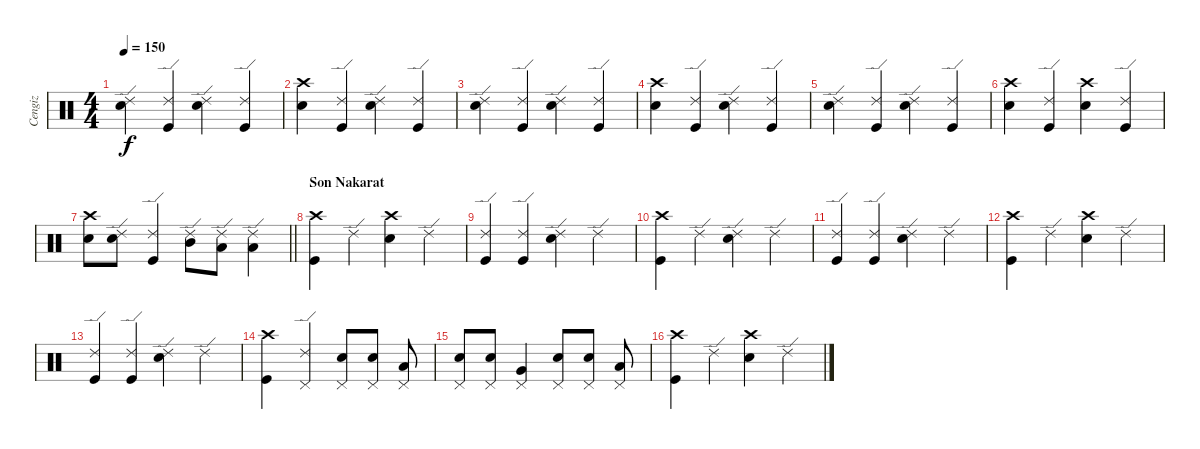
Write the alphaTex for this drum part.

\track ("Cengiz" "Cengiz") {instrument percussion}
\staff {score}
\articulation defaults
\ts (4 4)
\tempo 150
\clef neutral
\ks c
("Ride (edge) 2" "Snare (hit) 2").4{dy f} ("Ride (edge) 2" "Kick (hit)").4 ("Ride (edge) 2" "Snare (hit) 2").4 ("Ride (edge) 2" "Kick (hit)").4 |
("Crash high (hit)" "Snare (hit) 2").4 ("Ride (edge) 2" "Kick (hit)").4 ("Ride (edge) 2" "Snare (hit) 2").4 ("Ride (edge) 2" "Kick (hit)").4 |
("Ride (edge) 2" "Snare (hit) 2").4 ("Ride (edge) 2" "Kick (hit)").4 ("Ride (edge) 2" "Snare (hit) 2").4 ("Ride (edge) 2" "Kick (hit)").4 |
("Crash high (hit)" "Snare (hit) 2").4 ("Ride (edge) 2" "Kick (hit)").4 ("Ride (edge) 2" "Snare (hit) 2").4 ("Ride (edge) 2" "Kick (hit)").4 |
("Ride (edge) 2" "Snare (hit) 2").4 ("Ride (edge) 2" "Kick (hit)").4 ("Ride (edge) 2" "Snare (hit) 2").4 ("Ride (edge) 2" "Kick (hit)").4 |
("Crash high (hit)" "Snare (hit) 2").4 ("Ride (edge) 2" "Kick (hit)").4 ("Crash high (hit)" "Snare (hit) 2").4 ("Ride (edge) 2" "Kick (hit)").4 |
\barLineRight lightlight
("Crash high (hit)" "Snare (hit) 2").8 ("Ride (edge) 2" "Snare (hit) 2").8 ("Ride (edge) 2" "Kick (hit)").4 ("Ride (edge) 2" "Mid Tom (hit)").8 ("Ride (edge) 2" "Low Tom (hit)").8 ("Ride (edge) 2" "Low Floor Tom (hit)").4 |
\section ("" "Son Nakarat")
("Crash high (hit)" "Kick (hit)").4 "Ride (edge) 2".4 ("Crash high (hit)" "Snare (hit) 2").4 "Ride (edge) 2".4 |
("Ride (edge) 2" "Kick (hit)").4 ("Ride (edge) 2" "Kick (hit)").4 ("Ride (edge) 2" "Snare (hit) 2").4 "Ride (edge) 2".4 |
("Crash high (hit)" "Kick (hit)").4 "Ride (edge) 2".4 ("Ride (edge) 2" "Snare (hit) 2").4 "Ride (edge) 2".4 |
("Ride (edge) 2" "Kick (hit)").4 ("Ride (edge) 2" "Kick (hit)").4 ("Ride (edge) 2" "Snare (hit) 2").4 "Ride (edge) 2".4 |
("Crash high (hit)" "Kick (hit)").4 "Ride (edge) 2".4 ("Crash high (hit)" "Snare (hit) 2").4 "Ride (edge) 2".4 |
("Ride (edge) 2" "Kick (hit)").4 ("Ride (edge) 2" "Kick (hit)").4 ("Ride (edge) 2" "Snare (hit) 2").4 "Ride (edge) 2".4 |
("Crash high (hit)" "Kick (hit)").4 ("Ride (edge) 2" "Pedal Hi-Hat (hit)").4 ("Snare (hit) 2" "Pedal Hi-Hat (hit)").8 ("Snare (hit) 2" "Pedal Hi-Hat (hit)").8 ("Low Tom (hit)" "Pedal Hi-Hat (hit)").8 |
("Snare (hit) 2" "Pedal Hi-Hat (hit)").8 ("Snare (hit) 2" "Pedal Hi-Hat (hit)").8 ("Very Low Tom (hit)" "Pedal Hi-Hat (hit)").4 ("Snare (hit) 2" "Pedal Hi-Hat (hit)").8 ("Snare (hit) 2" "Pedal Hi-Hat (hit)").8 ("Low Floor Tom (hit)" "Pedal Hi-Hat (hit)").8 |
("Crash high (hit)" "Kick (hit)").4 "Ride (edge) 2".4 ("Crash high (hit)" "Snare (hit) 2").4 "Ride (edge) 2".4
